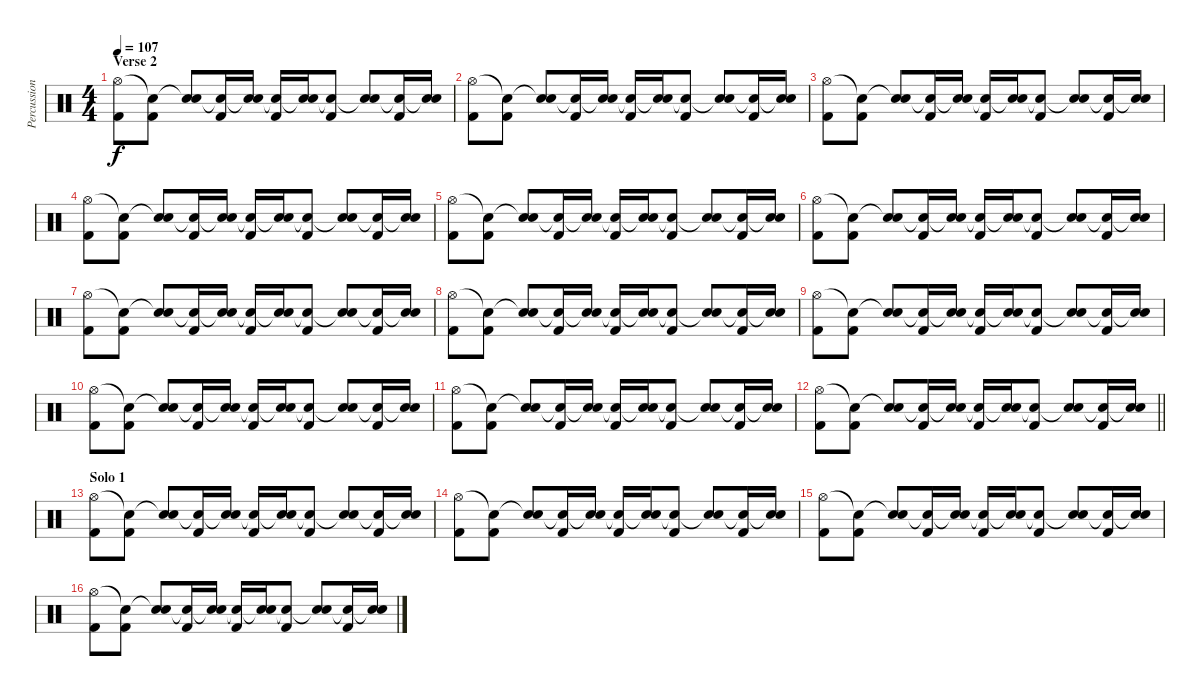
\track ("Percussioni" "Percussion") {instrument percussion}
\staff {score}
\articulation defaults
\ts (4 4)
\section ("" "Verse 2")
\tempo 107
\clef neutral
\ks c
("Hi-Hat (open)" "Kick (hit) 2").8{dy f} ("Snare (hit)"{t} "Kick (hit) 2").8 ("Snare (hit)"{t} "Electric Snare (hit)").8 ("Snare (hit)"{t} "Kick (hit) 2").16 ("Snare (hit)"{t} "Electric Snare (hit)").16 ("Snare (hit)"{t} "Kick (hit) 2").16 ("Snare (hit)"{t} "Electric Snare (hit)").16 ("Snare (hit)"{t} "Kick (hit) 2").8 ("Snare (hit)"{t} "Electric Snare (hit)").8 ("Snare (hit)"{t} "Kick (hit) 2").16 ("Snare (hit)"{t} "Electric Snare (hit)").16 |
("Hi-Hat (open)" "Kick (hit) 2").8 ("Snare (hit)"{t} "Kick (hit) 2").8 ("Snare (hit)"{t} "Electric Snare (hit)").8 ("Snare (hit)"{t} "Kick (hit) 2").16 ("Snare (hit)"{t} "Electric Snare (hit)").16 ("Snare (hit)"{t} "Kick (hit) 2").16 ("Snare (hit)"{t} "Electric Snare (hit)").16 ("Snare (hit)"{t} "Kick (hit) 2").8 ("Snare (hit)"{t} "Electric Snare (hit)").8 ("Snare (hit)"{t} "Kick (hit) 2").16 ("Snare (hit)"{t} "Electric Snare (hit)").16 |
("Hi-Hat (open)" "Kick (hit) 2").8 ("Snare (hit)"{t} "Kick (hit) 2").8 ("Snare (hit)"{t} "Electric Snare (hit)").8 ("Snare (hit)"{t} "Kick (hit) 2").16 ("Snare (hit)"{t} "Electric Snare (hit)").16 ("Snare (hit)"{t} "Kick (hit) 2").16 ("Snare (hit)"{t} "Electric Snare (hit)").16 ("Snare (hit)"{t} "Kick (hit) 2").8 ("Snare (hit)"{t} "Electric Snare (hit)").8 ("Snare (hit)"{t} "Kick (hit) 2").16 ("Snare (hit)"{t} "Electric Snare (hit)").16 |
("Hi-Hat (open)" "Kick (hit) 2").8 ("Snare (hit)"{t} "Kick (hit) 2").8 ("Snare (hit)"{t} "Electric Snare (hit)").8 ("Snare (hit)"{t} "Kick (hit) 2").16 ("Snare (hit)"{t} "Electric Snare (hit)").16 ("Snare (hit)"{t} "Kick (hit) 2").16 ("Snare (hit)"{t} "Electric Snare (hit)").16 ("Snare (hit)"{t} "Kick (hit) 2").8 ("Snare (hit)"{t} "Electric Snare (hit)").8 ("Snare (hit)"{t} "Kick (hit) 2").16 ("Snare (hit)"{t} "Electric Snare (hit)").16 |
("Hi-Hat (open)" "Kick (hit) 2").8 ("Snare (hit)"{t} "Kick (hit) 2").8 ("Snare (hit)"{t} "Electric Snare (hit)").8 ("Snare (hit)"{t} "Kick (hit) 2").16 ("Snare (hit)"{t} "Electric Snare (hit)").16 ("Snare (hit)"{t} "Kick (hit) 2").16 ("Snare (hit)"{t} "Electric Snare (hit)").16 ("Snare (hit)"{t} "Kick (hit) 2").8 ("Snare (hit)"{t} "Electric Snare (hit)").8 ("Snare (hit)"{t} "Kick (hit) 2").16 ("Snare (hit)"{t} "Electric Snare (hit)").16 |
("Hi-Hat (open)" "Kick (hit) 2").8 ("Snare (hit)"{t} "Kick (hit) 2").8 ("Snare (hit)"{t} "Electric Snare (hit)").8 ("Snare (hit)"{t} "Kick (hit) 2").16 ("Snare (hit)"{t} "Electric Snare (hit)").16 ("Snare (hit)"{t} "Kick (hit) 2").16 ("Snare (hit)"{t} "Electric Snare (hit)").16 ("Snare (hit)"{t} "Kick (hit) 2").8 ("Snare (hit)"{t} "Electric Snare (hit)").8 ("Snare (hit)"{t} "Kick (hit) 2").16 ("Snare (hit)"{t} "Electric Snare (hit)").16 |
("Hi-Hat (open)" "Kick (hit) 2").8 ("Snare (hit)"{t} "Kick (hit) 2").8 ("Snare (hit)"{t} "Electric Snare (hit)").8 ("Snare (hit)"{t} "Kick (hit) 2").16 ("Snare (hit)"{t} "Electric Snare (hit)").16 ("Snare (hit)"{t} "Kick (hit) 2").16 ("Snare (hit)"{t} "Electric Snare (hit)").16 ("Snare (hit)"{t} "Kick (hit) 2").8 ("Snare (hit)"{t} "Electric Snare (hit)").8 ("Snare (hit)"{t} "Kick (hit) 2").16 ("Snare (hit)"{t} "Electric Snare (hit)").16 |
("Hi-Hat (open)" "Kick (hit) 2").8 ("Snare (hit)"{t} "Kick (hit) 2").8 ("Snare (hit)"{t} "Electric Snare (hit)").8 ("Snare (hit)"{t} "Kick (hit) 2").16 ("Snare (hit)"{t} "Electric Snare (hit)").16 ("Snare (hit)"{t} "Kick (hit) 2").16 ("Snare (hit)"{t} "Electric Snare (hit)").16 ("Snare (hit)"{t} "Kick (hit) 2").8 ("Snare (hit)"{t} "Electric Snare (hit)").8 ("Snare (hit)"{t} "Kick (hit) 2").16 ("Snare (hit)"{t} "Electric Snare (hit)").16 |
("Hi-Hat (open)" "Kick (hit) 2").8 ("Snare (hit)"{t} "Kick (hit) 2").8 ("Snare (hit)"{t} "Electric Snare (hit)").8 ("Snare (hit)"{t} "Kick (hit) 2").16 ("Snare (hit)"{t} "Electric Snare (hit)").16 ("Snare (hit)"{t} "Kick (hit) 2").16 ("Snare (hit)"{t} "Electric Snare (hit)").16 ("Snare (hit)"{t} "Kick (hit) 2").8 ("Snare (hit)"{t} "Electric Snare (hit)").8 ("Snare (hit)"{t} "Kick (hit) 2").16 ("Snare (hit)"{t} "Electric Snare (hit)").16 |
("Hi-Hat (open)" "Kick (hit) 2").8 ("Snare (hit)"{t} "Kick (hit) 2").8 ("Snare (hit)"{t} "Electric Snare (hit)").8 ("Snare (hit)"{t} "Kick (hit) 2").16 ("Snare (hit)"{t} "Electric Snare (hit)").16 ("Snare (hit)"{t} "Kick (hit) 2").16 ("Snare (hit)"{t} "Electric Snare (hit)").16 ("Snare (hit)"{t} "Kick (hit) 2").8 ("Snare (hit)"{t} "Electric Snare (hit)").8 ("Snare (hit)"{t} "Kick (hit) 2").16 ("Snare (hit)"{t} "Electric Snare (hit)").16 |
("Hi-Hat (open)" "Kick (hit) 2").8 ("Snare (hit)"{t} "Kick (hit) 2").8 ("Snare (hit)"{t} "Electric Snare (hit)").8 ("Snare (hit)"{t} "Kick (hit) 2").16 ("Snare (hit)"{t} "Electric Snare (hit)").16 ("Snare (hit)"{t} "Kick (hit) 2").16 ("Snare (hit)"{t} "Electric Snare (hit)").16 ("Snare (hit)"{t} "Kick (hit) 2").8 ("Snare (hit)"{t} "Electric Snare (hit)").8 ("Snare (hit)"{t} "Kick (hit) 2").16 ("Snare (hit)"{t} "Electric Snare (hit)").16 |
\barLineRight lightlight
("Hi-Hat (open)" "Kick (hit) 2").8 ("Snare (hit)"{t} "Kick (hit) 2").8 ("Snare (hit)"{t} "Electric Snare (hit)").8 ("Snare (hit)"{t} "Kick (hit) 2").16 ("Snare (hit)"{t} "Electric Snare (hit)").16 ("Snare (hit)"{t} "Kick (hit) 2").16 ("Snare (hit)"{t} "Electric Snare (hit)").16 ("Snare (hit)"{t} "Kick (hit) 2").8 ("Snare (hit)"{t} "Electric Snare (hit)").8 ("Snare (hit)"{t} "Kick (hit) 2").16 ("Snare (hit)"{t} "Electric Snare (hit)").16 |
\section ("" "Solo 1")
("Hi-Hat (open)" "Kick (hit) 2").8 ("Snare (hit)"{t} "Kick (hit) 2").8 ("Snare (hit)"{t} "Electric Snare (hit)").8 ("Snare (hit)"{t} "Kick (hit) 2").16 ("Snare (hit)"{t} "Electric Snare (hit)").16 ("Snare (hit)"{t} "Kick (hit) 2").16 ("Snare (hit)"{t} "Electric Snare (hit)").16 ("Snare (hit)"{t} "Kick (hit) 2").8 ("Snare (hit)"{t} "Electric Snare (hit)").8 ("Snare (hit)"{t} "Kick (hit) 2").16 ("Snare (hit)"{t} "Electric Snare (hit)").16 |
("Hi-Hat (open)" "Kick (hit) 2").8 ("Snare (hit)"{t} "Kick (hit) 2").8 ("Snare (hit)"{t} "Electric Snare (hit)").8 ("Snare (hit)"{t} "Kick (hit) 2").16 ("Snare (hit)"{t} "Electric Snare (hit)").16 ("Snare (hit)"{t} "Kick (hit) 2").16 ("Snare (hit)"{t} "Electric Snare (hit)").16 ("Snare (hit)"{t} "Kick (hit) 2").8 ("Snare (hit)"{t} "Electric Snare (hit)").8 ("Snare (hit)"{t} "Kick (hit) 2").16 ("Snare (hit)"{t} "Electric Snare (hit)").16 |
("Hi-Hat (open)" "Kick (hit) 2").8 ("Snare (hit)"{t} "Kick (hit) 2").8 ("Snare (hit)"{t} "Electric Snare (hit)").8 ("Snare (hit)"{t} "Kick (hit) 2").16 ("Snare (hit)"{t} "Electric Snare (hit)").16 ("Snare (hit)"{t} "Kick (hit) 2").16 ("Snare (hit)"{t} "Electric Snare (hit)").16 ("Snare (hit)"{t} "Kick (hit) 2").8 ("Snare (hit)"{t} "Electric Snare (hit)").8 ("Snare (hit)"{t} "Kick (hit) 2").16 ("Snare (hit)"{t} "Electric Snare (hit)").16 |
("Hi-Hat (open)" "Kick (hit) 2").8 ("Snare (hit)"{t} "Kick (hit) 2").8 ("Snare (hit)"{t} "Electric Snare (hit)").8 ("Snare (hit)"{t} "Kick (hit) 2").16 ("Snare (hit)"{t} "Electric Snare (hit)").16 ("Snare (hit)"{t} "Kick (hit) 2").16 ("Snare (hit)"{t} "Electric Snare (hit)").16 ("Snare (hit)"{t} "Kick (hit) 2").8 ("Snare (hit)"{t} "Electric Snare (hit)").8 ("Snare (hit)"{t} "Kick (hit) 2").16 ("Snare (hit)"{t} "Electric Snare (hit)").16
